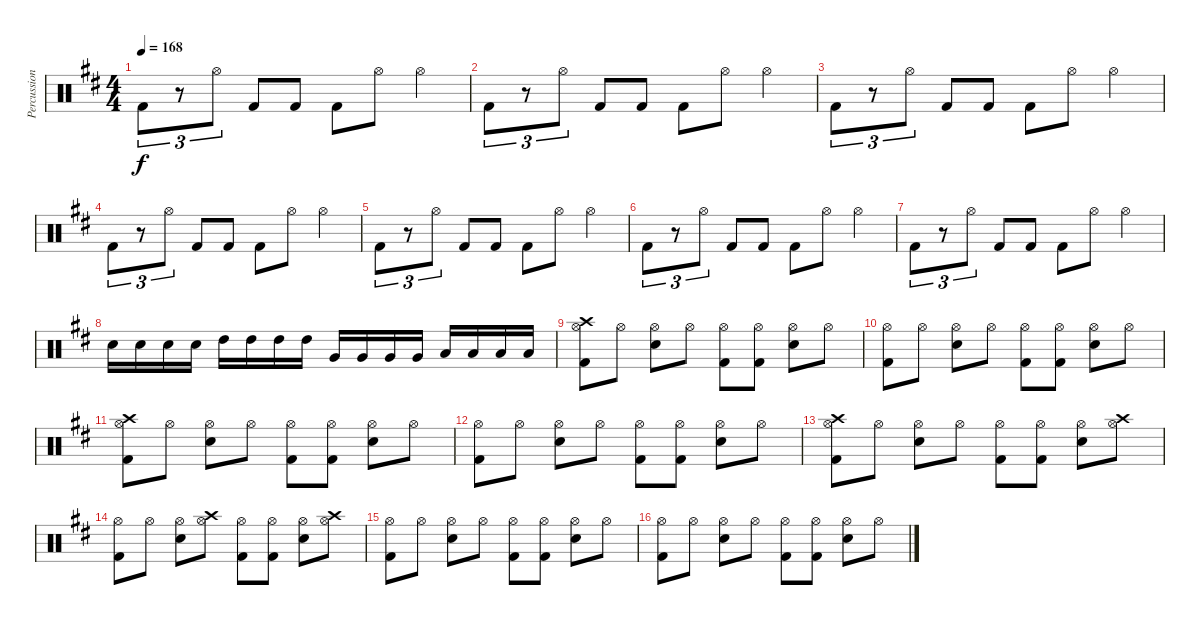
\track ("Percussion" "Percussion") {instrument percussion}
\staff {score}
\articulation defaults
\ts (4 4)
\tempo 168
\clef neutral
\ks d "Kick (hit) 2".8{tu (3 2) dy f}
r.8{tu (3 2)} "Hi-Hat (open)".8{tu (3 2)} "Kick (hit) 2".8 "Kick (hit) 2".8 "Kick (hit) 2".8 "Hi-Hat (open)".8 "Hi-Hat (open)".4 |
"Kick (hit) 2".8{tu (3 2)} r.8{tu (3 2)} "Hi-Hat (open)".8{tu (3 2)} "Kick (hit) 2".8 "Kick (hit) 2".8 "Kick (hit) 2".8 "Hi-Hat (open)".8 "Hi-Hat (open)".4 |
"Kick (hit) 2".8{tu (3 2)} r.8{tu (3 2)} "Hi-Hat (open)".8{tu (3 2)} "Kick (hit) 2".8 "Kick (hit) 2".8 "Kick (hit) 2".8 "Hi-Hat (open)".8 "Hi-Hat (open)".4 |
"Kick (hit) 2".8{tu (3 2)} r.8{tu (3 2)} "Hi-Hat (open)".8{tu (3 2)} "Kick (hit) 2".8 "Kick (hit) 2".8 "Kick (hit) 2".8 "Hi-Hat (open)".8 "Hi-Hat (open)".4 |
"Kick (hit) 2".8{tu (3 2)} r.8{tu (3 2)} "Hi-Hat (open)".8{tu (3 2)} "Kick (hit) 2".8 "Kick (hit) 2".8 "Kick (hit) 2".8 "Hi-Hat (open)".8 "Hi-Hat (open)".4 |
"Kick (hit) 2".8{tu (3 2)} r.8{tu (3 2)} "Hi-Hat (open)".8{tu (3 2)} "Kick (hit) 2".8 "Kick (hit) 2".8 "Kick (hit) 2".8 "Hi-Hat (open)".8 "Hi-Hat (open)".4 |
"Kick (hit) 2".8{tu (3 2)} r.8{tu (3 2)} "Hi-Hat (open)".8{tu (3 2)} "Kick (hit) 2".8 "Kick (hit) 2".8 "Kick (hit) 2".8 "Hi-Hat (open)".8 "Hi-Hat (open)".4 |
"Electric Snare (hit)".16 "Electric Snare (hit)".16 "Electric Snare (hit)".16 "Electric Snare (hit)".16 "High Tom (hit)".16 "High Tom (hit)".16 "High Tom (hit)".16 "High Tom (hit)".16 "Very Low Tom (hit)".16 "Very Low Tom (hit)".16 "Very Low Tom (hit)".16 "Very Low Tom (hit)".16 "Low Tom (hit)".16 "Low Tom (hit)".16 "Low Tom (hit)".16 "Low Tom (hit)".16 |
("Crash high (hit)" "Kick (hit) 2" "Hi-Hat (open)").8 "Hi-Hat (open)".8 ("Electric Snare (hit)" "Hi-Hat (open)").8 "Hi-Hat (open)".8 ("Kick (hit) 2" "Hi-Hat (open)").8 ("Kick (hit) 2" "Hi-Hat (open)").8 ("Electric Snare (hit)" "Hi-Hat (open)").8 "Hi-Hat (open)".8 |
("Kick (hit) 2" "Hi-Hat (open)").8 "Hi-Hat (open)".8 ("Electric Snare (hit)" "Hi-Hat (open)").8 "Hi-Hat (open)".8 ("Kick (hit) 2" "Hi-Hat (open)").8 ("Kick (hit) 2" "Hi-Hat (open)").8 ("Electric Snare (hit)" "Hi-Hat (open)").8 "Hi-Hat (open)".8 |
("Crash high (hit)" "Kick (hit) 2" "Hi-Hat (open)").8 "Hi-Hat (open)".8 ("Electric Snare (hit)" "Hi-Hat (open)").8 "Hi-Hat (open)".8 ("Kick (hit) 2" "Hi-Hat (open)").8 ("Kick (hit) 2" "Hi-Hat (open)").8 ("Electric Snare (hit)" "Hi-Hat (open)").8 "Hi-Hat (open)".8 |
("Kick (hit) 2" "Hi-Hat (open)").8 "Hi-Hat (open)".8 ("Electric Snare (hit)" "Hi-Hat (open)").8 "Hi-Hat (open)".8 ("Kick (hit) 2" "Hi-Hat (open)").8 ("Kick (hit) 2" "Hi-Hat (open)").8 ("Electric Snare (hit)" "Hi-Hat (open)").8 "Hi-Hat (open)".8 |
("Crash high (hit)" "Kick (hit) 2" "Hi-Hat (open)").8 "Hi-Hat (open)".8 ("Electric Snare (hit)" "Hi-Hat (open)").8 "Hi-Hat (open)".8 ("Kick (hit) 2" "Hi-Hat (open)").8 ("Kick (hit) 2" "Hi-Hat (open)").8 ("Electric Snare (hit)" "Hi-Hat (open)").8 ("Crash high (hit)" "Hi-Hat (open)").8 |
("Kick (hit) 2" "Hi-Hat (open)").8 "Hi-Hat (open)".8 ("Electric Snare (hit)" "Hi-Hat (open)").8 ("Crash high (hit)" "Hi-Hat (open)").8 ("Kick (hit) 2" "Hi-Hat (open)").8 ("Kick (hit) 2" "Hi-Hat (open)").8 ("Electric Snare (hit)" "Hi-Hat (open)").8 ("Crash high (hit)" "Hi-Hat (open)").8 |
("Kick (hit) 2" "Hi-Hat (open)").8 "Hi-Hat (open)".8 ("Electric Snare (hit)" "Hi-Hat (open)").8 "Hi-Hat (open)".8 ("Kick (hit) 2" "Hi-Hat (open)").8 ("Kick (hit) 2" "Hi-Hat (open)").8 ("Electric Snare (hit)" "Hi-Hat (open)").8 "Hi-Hat (open)".8 |
("Kick (hit) 2" "Hi-Hat (open)").8 "Hi-Hat (open)".8 ("Electric Snare (hit)" "Hi-Hat (open)").8 "Hi-Hat (open)".8 ("Kick (hit) 2" "Hi-Hat (open)").8 ("Kick (hit) 2" "Hi-Hat (open)").8 ("Electric Snare (hit)" "Hi-Hat (open)").8 "Hi-Hat (open)".8
